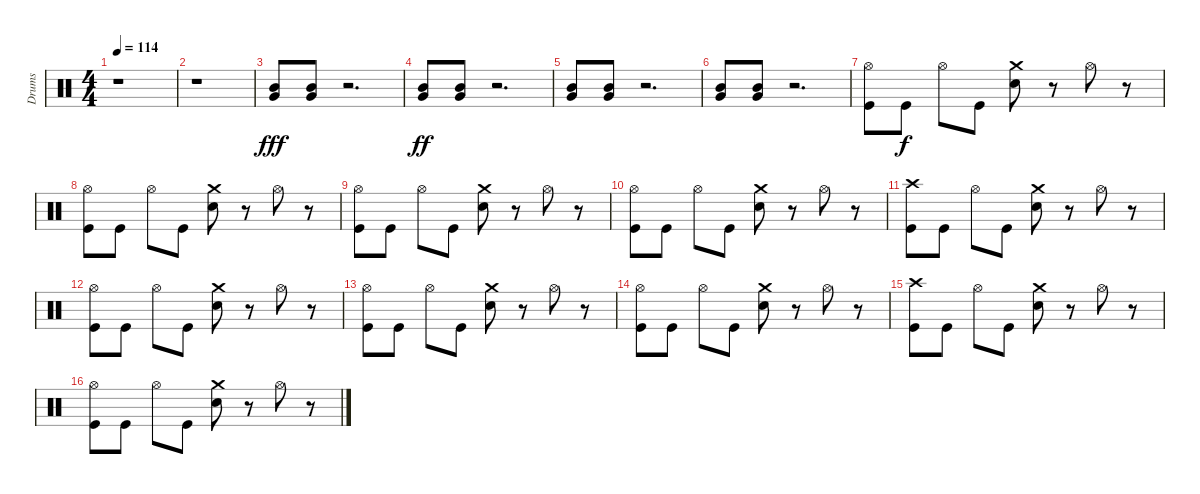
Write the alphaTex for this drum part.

\track ("Drums" "Drums") {instrument percussion}
\staff {score}
\articulation defaults
\ts (4 4)
\tempo 114
\clef neutral
\ks c
r.1{dy fff} |
r.1 |
("Mid Tom (hit)" "Very Low Tom (hit)").8 ("Mid Tom (hit)" "Very Low Tom (hit)").8 r.2{d} |
("Mid Tom (hit)" "Very Low Tom (hit)").8{dy ff} ("Mid Tom (hit)" "Very Low Tom (hit)").8 r.2{d} |
("Mid Tom (hit)" "Very Low Tom (hit)").8 ("Mid Tom (hit)" "Very Low Tom (hit)").8 r.2{d} |
("Mid Tom (hit)" "Very Low Tom (hit)").8 ("Mid Tom (hit)" "Very Low Tom (hit)").8 r.2{d} |
("Kick (hit)" "Hi-Hat (open)").8 "Kick (hit)".8{dy f} "Hi-Hat (open)".8 "Kick (hit)".8 ("Crash medium (hit)" "Electric Snare (hit)").8 r.8 "Hi-Hat (open)".8 r.8 |
("Kick (hit)" "Hi-Hat (open)").8 "Kick (hit)".8 "Hi-Hat (open)".8 "Kick (hit)".8 ("Crash medium (hit)" "Electric Snare (hit)").8 r.8 "Hi-Hat (open)".8 r.8 |
("Kick (hit)" "Hi-Hat (open)").8 "Kick (hit)".8 "Hi-Hat (open)".8 "Kick (hit)".8 ("Crash medium (hit)" "Electric Snare (hit)").8 r.8 "Hi-Hat (open)".8 r.8 |
("Kick (hit)" "Hi-Hat (open)").8 "Kick (hit)".8 "Hi-Hat (open)".8 "Kick (hit)".8 ("Crash medium (hit)" "Electric Snare (hit)").8 r.8 "Hi-Hat (open)".8 r.8 |
("Crash high (hit)" "Kick (hit)").8 "Kick (hit)".8 "Hi-Hat (open)".8 "Kick (hit)".8 ("Crash medium (hit)" "Electric Snare (hit)").8 r.8 "Hi-Hat (open)".8 r.8 |
("Kick (hit)" "Hi-Hat (open)").8 "Kick (hit)".8 "Hi-Hat (open)".8 "Kick (hit)".8 ("Crash medium (hit)" "Electric Snare (hit)").8 r.8 "Hi-Hat (open)".8 r.8 |
("Kick (hit)" "Hi-Hat (open)").8 "Kick (hit)".8 "Hi-Hat (open)".8 "Kick (hit)".8 ("Crash medium (hit)" "Electric Snare (hit)").8 r.8 "Hi-Hat (open)".8 r.8 |
("Kick (hit)" "Hi-Hat (open)").8 "Kick (hit)".8 "Hi-Hat (open)".8 "Kick (hit)".8 ("Crash medium (hit)" "Electric Snare (hit)").8 r.8 "Hi-Hat (open)".8 r.8 |
("Crash high (hit)" "Kick (hit)").8 "Kick (hit)".8 "Hi-Hat (open)".8 "Kick (hit)".8 ("Crash medium (hit)" "Electric Snare (hit)").8 r.8 "Hi-Hat (open)".8 r.8 |
("Kick (hit)" "Hi-Hat (open)").8 "Kick (hit)".8 "Hi-Hat (open)".8 "Kick (hit)".8 ("Crash medium (hit)" "Electric Snare (hit)").8 r.8 "Hi-Hat (open)".8 r.8
